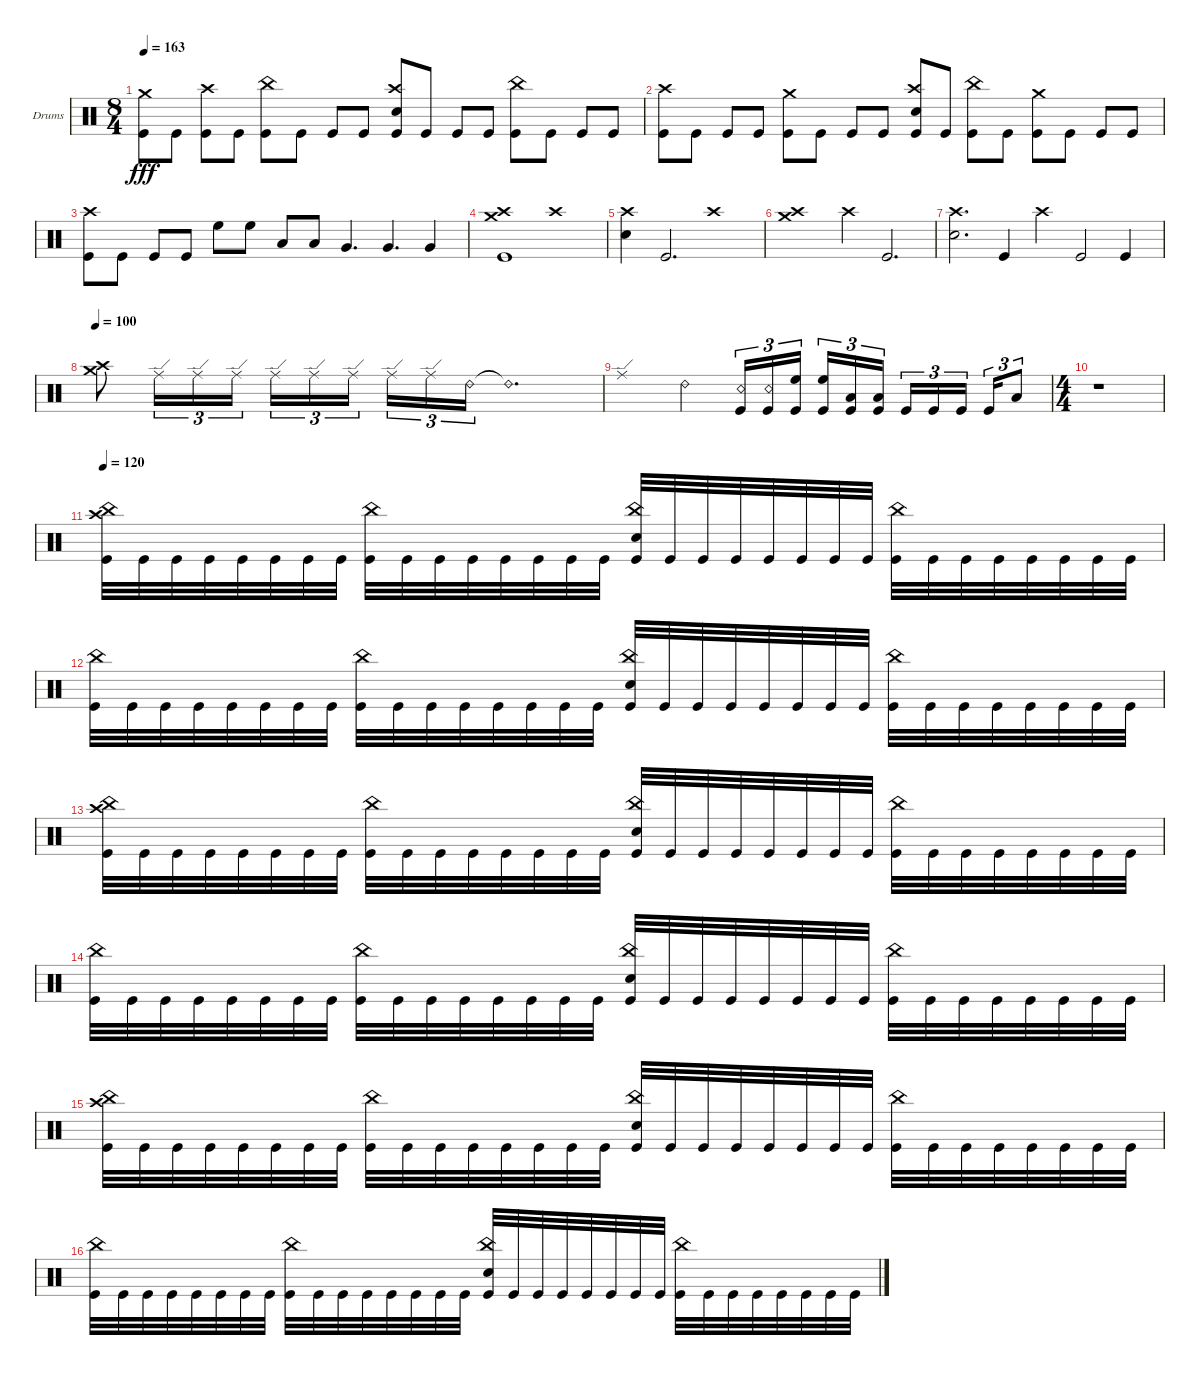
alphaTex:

\defaultSystemsLayout 4
\bracketExtendMode groupsimilarinstruments
\firstSystemTrackNameOrientation horizontal
\otherSystemsTrackNameOrientation horizontal
\track ("Drumkit" "Drums") {instrument percussion}
\staff {score}
\articulation defaults
\ts (8 4)
\tempo 163
\clef neutral
\ks c
("Kick (hit)" "Crash medium (hit)").8{dy fff} "Kick (hit)".8 ("Kick (hit)" "Crash high (hit)").8 "Kick (hit)".8 ("Kick (hit)" "China (hit)").8 "Kick (hit)".8 "Kick (hit)".8 "Kick (hit)".8 ("Kick (hit)" "Snare (hit) 2" "Crash high (hit)").8 "Kick (hit)".8 "Kick (hit)".8 "Kick (hit)".8 ("Kick (hit)" "China (hit)").8 "Kick (hit)".8 "Kick (hit)".8 "Kick (hit)".8 |
("Kick (hit)" "Crash high (hit)").8 "Kick (hit)".8 "Kick (hit)".8 "Kick (hit)".8 ("Kick (hit)" "Crash medium (hit)").8 "Kick (hit)".8 "Kick (hit)".8 "Kick (hit)".8 ("Kick (hit)" "Snare (hit) 2" "Crash high (hit)").8 "Kick (hit)".8 ("Kick (hit)" "China (hit)").8 "Kick (hit)".8 ("Kick (hit)" "Crash medium (hit)").8 "Kick (hit)".8 "Kick (hit)".8 "Kick (hit)".8 |
("Crash high (hit)" "Kick (hit)").8 "Kick (hit)".8 "Kick (hit)".8 "Kick (hit)".8 "High Floor Tom (hit)".8 "High Floor Tom (hit)".8 "Low Tom (hit)".8 "Low Tom (hit)".8 "Very Low Tom (hit)".4{d} "Very Low Tom (hit)".4{d} "Very Low Tom (hit)".4 |
("Crash medium (hit)" "Crash high (hit)" "Kick (hit)").1 "Crash high (hit)".1 |
("Crash high (hit)" "Snare (hit) 2").4 "Kick (hit)".2{d} "Crash high (hit)".1 |
("Crash high (hit)" "Crash medium (hit)").1 "Crash high (hit)".4 "Kick (hit)".2{d} |
("Crash high (hit)" "Snare (hit) 2").2{d} "Kick (hit)".4 "Crash high (hit)".4 "Kick (hit)".2 "Kick (hit)".4 |
\tempo 100
("Crash medium (hit)" "Crash high (hit)").8 "Ride (edge)".16{tu (3 2)} "Ride (edge)".16{tu (3 2)} "Ride (edge)".16{tu (3 2)} "Ride (edge)".16{tu (3 2)} "Ride (edge)".16{tu (3 2)} "Ride (edge)".16{tu (3 2)} "Ride (edge)".16{tu (3 2)} "Ride (edge)".16{tu (3 2)} "Ride (bell) 2".16{tu (3 2)} "Ride (bell) 2"{t}.1{d} |
"Ride (edge)".1 "Ride (bell) 2".2 ("Kick (hit)" "Snare (rim shot)").16{tu (3 2)} ("Kick (hit)" "Snare (rim shot)").16{tu (3 2)} ("Kick (hit)" "High Floor Tom (hit)").16{tu (3 2)} ("Kick (hit)" "High Floor Tom (hit)").16{tu (3 2)} ("Kick (hit)" "Low Tom (hit)").16{tu (3 2)} ("Kick (hit)" "Low Tom (hit)").16{tu (3 2)} "Kick (hit)".16{tu (3 2)} "Kick (hit)".16{tu (3 2)} "Kick (hit)".16{tu (3 2)} "Kick (hit)".16{tu (3 2)} "Low Tom (hit)".8{tu (3 2)} |
\ts (4 4)
r.1 |
\tempo 120
("Kick (hit)" "China (hit)" "Crash high (hit)").32 "Kick (hit)".32 "Kick (hit)".32 "Kick (hit)".32 "Kick (hit)".32 "Kick (hit)".32 "Kick (hit)".32 "Kick (hit)".32 ("Kick (hit)" "China (hit)").32 "Kick (hit)".32 "Kick (hit)".32 "Kick (hit)".32 "Kick (hit)".32 "Kick (hit)".32 "Kick (hit)".32 "Kick (hit)".32 ("Kick (hit)" "China (hit)" "Snare (hit) 2").32 "Kick (hit)".32 "Kick (hit)".32 "Kick (hit)".32 "Kick (hit)".32 "Kick (hit)".32 "Kick (hit)".32 "Kick (hit)".32 ("Kick (hit)" "China (hit)").32 "Kick (hit)".32 "Kick (hit)".32 "Kick (hit)".32 "Kick (hit)".32 "Kick (hit)".32 "Kick (hit)".32 "Kick (hit)".32 |
("Kick (hit)" "China (hit)").32 "Kick (hit)".32 "Kick (hit)".32 "Kick (hit)".32 "Kick (hit)".32 "Kick (hit)".32 "Kick (hit)".32 "Kick (hit)".32 ("Kick (hit)" "China (hit)").32 "Kick (hit)".32 "Kick (hit)".32 "Kick (hit)".32 "Kick (hit)".32 "Kick (hit)".32 "Kick (hit)".32 "Kick (hit)".32 ("Kick (hit)" "China (hit)" "Snare (hit) 2").32 "Kick (hit)".32 "Kick (hit)".32 "Kick (hit)".32 "Kick (hit)".32 "Kick (hit)".32 "Kick (hit)".32 "Kick (hit)".32 ("Kick (hit)" "China (hit)").32 "Kick (hit)".32 "Kick (hit)".32 "Kick (hit)".32 "Kick (hit)".32 "Kick (hit)".32 "Kick (hit)".32 "Kick (hit)".32 |
("Kick (hit)" "China (hit)" "Crash high (hit)").32 "Kick (hit)".32 "Kick (hit)".32 "Kick (hit)".32 "Kick (hit)".32 "Kick (hit)".32 "Kick (hit)".32 "Kick (hit)".32 ("Kick (hit)" "China (hit)").32 "Kick (hit)".32 "Kick (hit)".32 "Kick (hit)".32 "Kick (hit)".32 "Kick (hit)".32 "Kick (hit)".32 "Kick (hit)".32 ("Kick (hit)" "China (hit)" "Snare (hit) 2").32 "Kick (hit)".32 "Kick (hit)".32 "Kick (hit)".32 "Kick (hit)".32 "Kick (hit)".32 "Kick (hit)".32 "Kick (hit)".32 ("Kick (hit)" "China (hit)").32 "Kick (hit)".32 "Kick (hit)".32 "Kick (hit)".32 "Kick (hit)".32 "Kick (hit)".32 "Kick (hit)".32 "Kick (hit)".32 |
("Kick (hit)" "China (hit)").32 "Kick (hit)".32 "Kick (hit)".32 "Kick (hit)".32 "Kick (hit)".32 "Kick (hit)".32 "Kick (hit)".32 "Kick (hit)".32 ("Kick (hit)" "China (hit)").32 "Kick (hit)".32 "Kick (hit)".32 "Kick (hit)".32 "Kick (hit)".32 "Kick (hit)".32 "Kick (hit)".32 "Kick (hit)".32 ("Kick (hit)" "China (hit)" "Snare (hit) 2").32 "Kick (hit)".32 "Kick (hit)".32 "Kick (hit)".32 "Kick (hit)".32 "Kick (hit)".32 "Kick (hit)".32 "Kick (hit)".32 ("Kick (hit)" "China (hit)").32 "Kick (hit)".32 "Kick (hit)".32 "Kick (hit)".32 "Kick (hit)".32 "Kick (hit)".32 "Kick (hit)".32 "Kick (hit)".32 |
("Kick (hit)" "China (hit)" "Crash high (hit)").32 "Kick (hit)".32 "Kick (hit)".32 "Kick (hit)".32 "Kick (hit)".32 "Kick (hit)".32 "Kick (hit)".32 "Kick (hit)".32 ("Kick (hit)" "China (hit)").32 "Kick (hit)".32 "Kick (hit)".32 "Kick (hit)".32 "Kick (hit)".32 "Kick (hit)".32 "Kick (hit)".32 "Kick (hit)".32 ("Kick (hit)" "China (hit)" "Snare (hit) 2").32 "Kick (hit)".32 "Kick (hit)".32 "Kick (hit)".32 "Kick (hit)".32 "Kick (hit)".32 "Kick (hit)".32 "Kick (hit)".32 ("Kick (hit)" "China (hit)").32 "Kick (hit)".32 "Kick (hit)".32 "Kick (hit)".32 "Kick (hit)".32 "Kick (hit)".32 "Kick (hit)".32 "Kick (hit)".32 |
("Kick (hit)" "China (hit)").32 "Kick (hit)".32 "Kick (hit)".32 "Kick (hit)".32 "Kick (hit)".32 "Kick (hit)".32 "Kick (hit)".32 "Kick (hit)".32 ("Kick (hit)" "China (hit)").32 "Kick (hit)".32 "Kick (hit)".32 "Kick (hit)".32 "Kick (hit)".32 "Kick (hit)".32 "Kick (hit)".32 "Kick (hit)".32 ("Kick (hit)" "China (hit)" "Snare (hit) 2").32 "Kick (hit)".32 "Kick (hit)".32 "Kick (hit)".32 "Kick (hit)".32 "Kick (hit)".32 "Kick (hit)".32 "Kick (hit)".32 ("Kick (hit)" "China (hit)").32 "Kick (hit)".32 "Kick (hit)".32 "Kick (hit)".32 "Kick (hit)".32 "Kick (hit)".32 "Kick (hit)".32 "Kick (hit)".32
